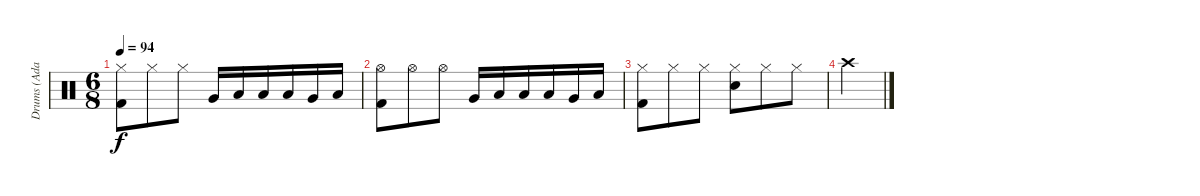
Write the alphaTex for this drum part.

\track ("Drums (Adam)" "Drums (Ada") {instrument percussion}
\staff {score}
\articulation defaults
\ts (6 8)
\tempo 94
\clef neutral
\ks c
("Hi-Hat (closed)" "Kick (hit) 2").8{dy f} "Hi-Hat (closed)".8 "Hi-Hat (closed)".8 "Very Low Tom (hit)".16 "Low Floor Tom (hit)".16 "Low Tom (hit)".16 "Low Floor Tom (hit)".16 "Very Low Tom (hit)".16 "Low Floor Tom (hit)".16 |
("Hi-Hat (open)" "Kick (hit) 2").8 "Hi-Hat (open)".8 "Hi-Hat (open)".8 "Very Low Tom (hit)".16 "Low Floor Tom (hit)".16 "Low Tom (hit)".16 "Low Floor Tom (hit)".16 "Very Low Tom (hit)".16 "Low Floor Tom (hit)".16 |
("Hi-Hat (closed)" "Kick (hit) 2").8 "Hi-Hat (closed)".8 "Hi-Hat (closed)".8 ("Hi-Hat (closed)" "Snare (hit) 2").8 "Hi-Hat (closed)".8 "Hi-Hat (closed)".8 |
"Crash high (hit)".4
